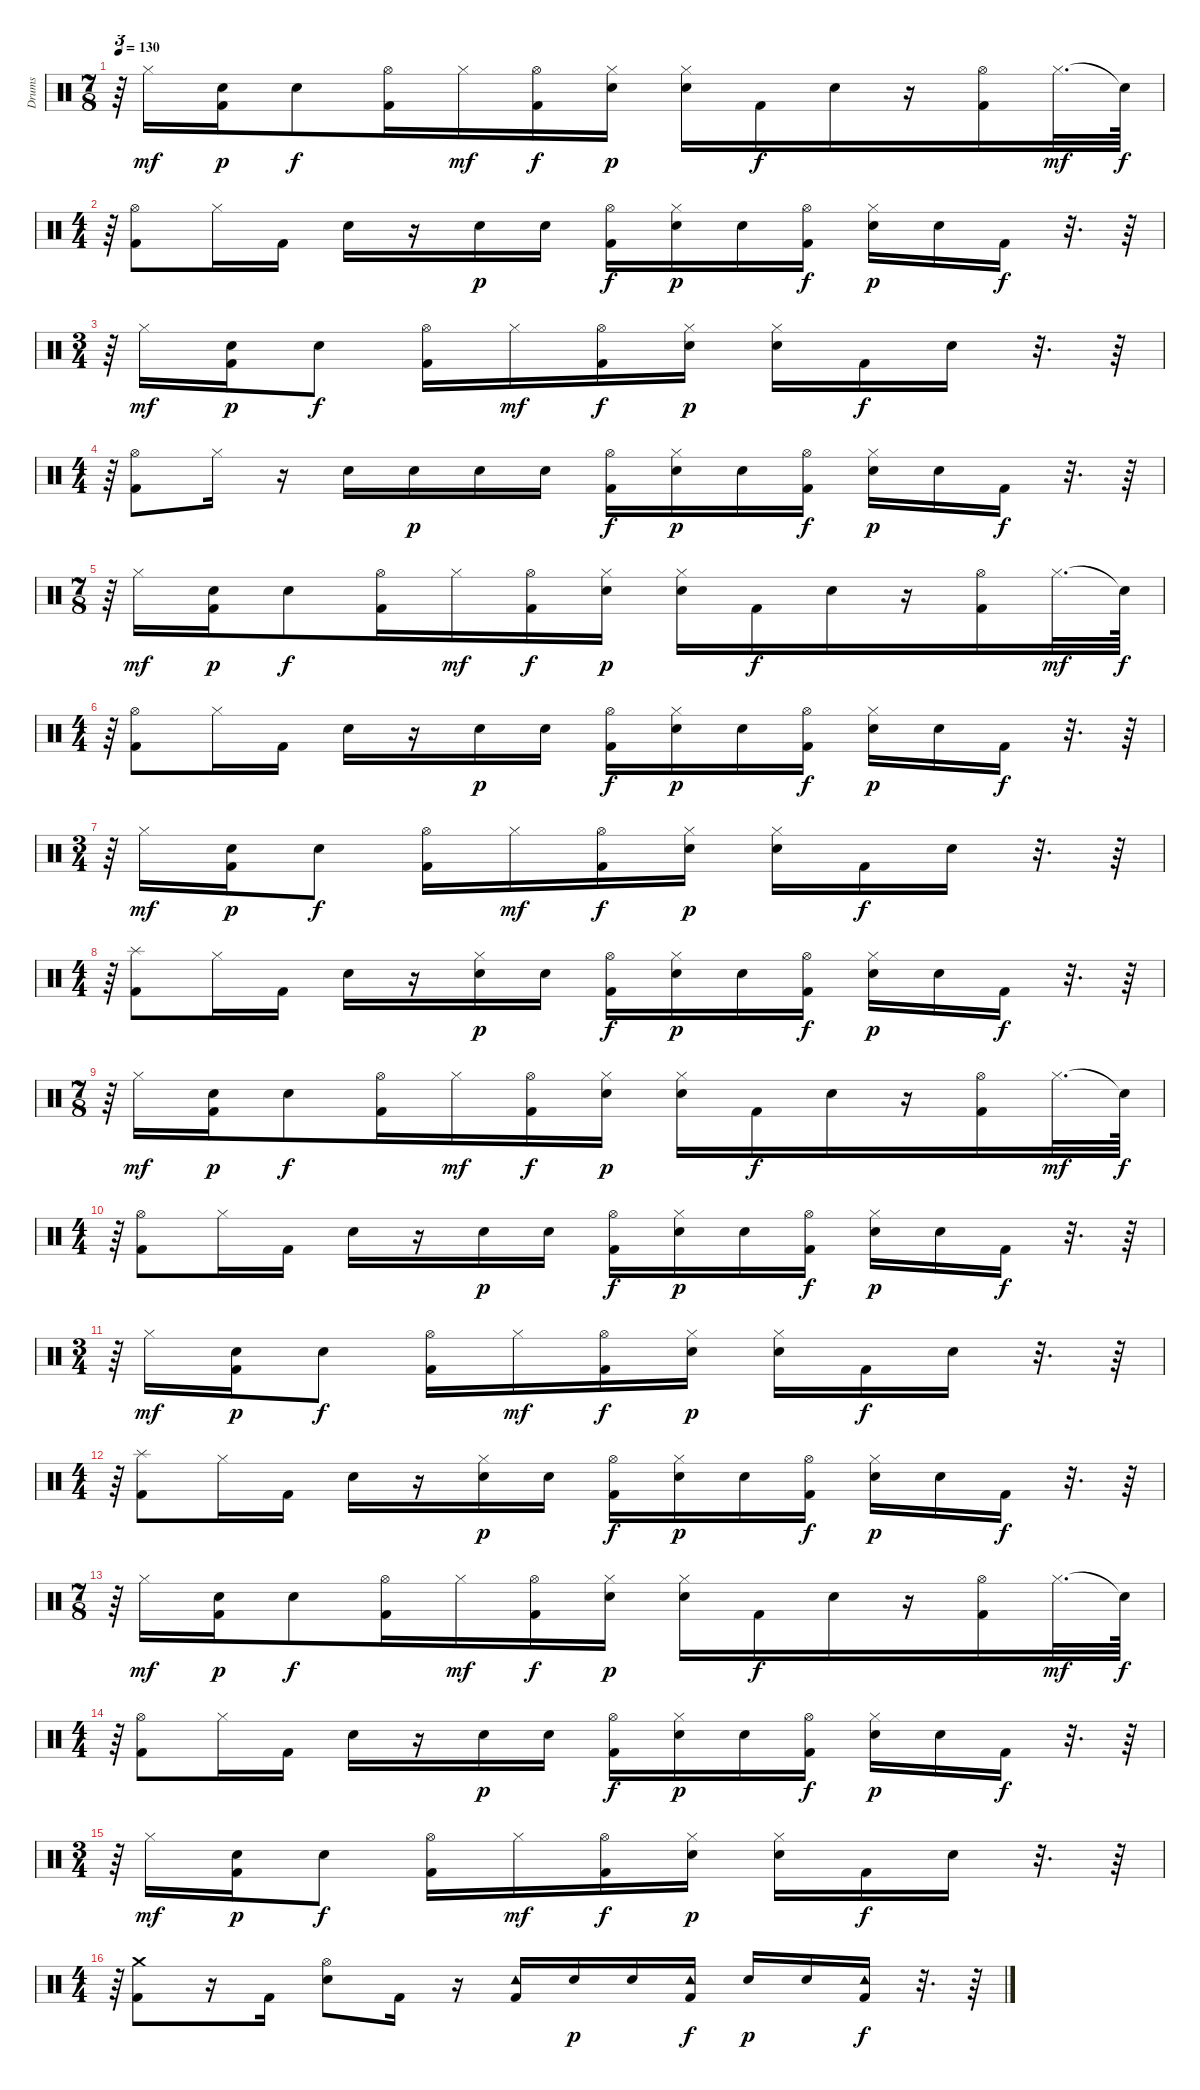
\track ("Drums" "Drums") {instrument percussion}
\staff {score}
\articulation defaults
\ts (7 8)
\tempo 130
\clef neutral
\ks c
r.64{tu (3 2) dy f} "Hi-Hat (closed)".16{dy mf} ("Kick (hit) 2" "Electric Snare (hit)").16{dy p} "Electric Snare (hit)".8{dy f} ("Kick (hit) 2" "Hi-Hat (open)").16 "Hi-Hat (closed)".16{dy mf} ("Kick (hit) 2" "Hi-Hat (open)").16{dy f} ("Hi-Hat (closed)" "Electric Snare (hit)").16{dy p} ("Hi-Hat (closed)" "Electric Snare (hit)").16 "Kick (hit) 2".16{dy f} "Electric Snare (hit)".16 r.16 ("Kick (hit) 2" "Hi-Hat (open)").16 "Hi-Hat (closed)".32{d dy mf} "Snare (hit)"{t}.64{dy f} |
\ts (4 4)
r.64{tu (3 2)} ("Hi-Hat (open)" "Kick (hit) 2").8 "Hi-Hat (closed)".16 "Kick (hit) 2".16 "Electric Snare (hit)".16 r.16 "Electric Snare (hit)".16{dy p} "Electric Snare (hit)".16 ("Kick (hit) 2" "Hi-Hat (open)").16{dy f} ("Hi-Hat (closed)" "Electric Snare (hit)").16{dy p} "Electric Snare (hit)".16 ("Kick (hit) 2" "Hi-Hat (open)").16{dy f} ("Hi-Hat (closed)" "Electric Snare (hit)").16{dy p} "Electric Snare (hit)".16 "Kick (hit) 2".16{dy f} r.32{d} r.64 |
\ts (3 4)
r.64{tu (3 2)} "Hi-Hat (closed)".16{dy mf} ("Kick (hit) 2" "Electric Snare (hit)").16{dy p} "Electric Snare (hit)".8{dy f} ("Kick (hit) 2" "Hi-Hat (open)").16 "Hi-Hat (closed)".16{dy mf} ("Kick (hit) 2" "Hi-Hat (open)").16{dy f} ("Hi-Hat (closed)" "Electric Snare (hit)").16{dy p} ("Hi-Hat (closed)" "Electric Snare (hit)").16 "Kick (hit) 2".16{dy f} "Electric Snare (hit)".16 r.32{d} r.64 |
\ts (4 4)
r.64{tu (3 2)} ("Hi-Hat (open)" "Kick (hit) 2").8 "Hi-Hat (closed)".16 r.16 "Electric Snare (hit)".16 "Electric Snare (hit)".16{dy p} "Electric Snare (hit)".16 "Electric Snare (hit)".16 ("Kick (hit) 2" "Hi-Hat (open)").16{dy f} ("Hi-Hat (closed)" "Electric Snare (hit)").16{dy p} "Electric Snare (hit)".16 ("Kick (hit) 2" "Hi-Hat (open)").16{dy f} ("Hi-Hat (closed)" "Electric Snare (hit)").16{dy p} "Electric Snare (hit)".16 "Kick (hit) 2".16{dy f} r.32{d} r.64 |
\ts (7 8)
r.64{tu (3 2)} "Hi-Hat (closed)".16{dy mf} ("Kick (hit) 2" "Electric Snare (hit)").16{dy p} "Electric Snare (hit)".8{dy f} ("Kick (hit) 2" "Hi-Hat (open)").16 "Hi-Hat (closed)".16{dy mf} ("Kick (hit) 2" "Hi-Hat (open)").16{dy f} ("Hi-Hat (closed)" "Electric Snare (hit)").16{dy p} ("Hi-Hat (closed)" "Electric Snare (hit)").16 "Kick (hit) 2".16{dy f} "Electric Snare (hit)".16 r.16 ("Kick (hit) 2" "Hi-Hat (open)").16 "Hi-Hat (closed)".32{d dy mf} "Snare (hit)"{t}.64{dy f} |
\ts (4 4)
r.64{tu (3 2)} ("Hi-Hat (open)" "Kick (hit) 2").8 "Hi-Hat (closed)".16 "Kick (hit) 2".16 "Electric Snare (hit)".16 r.16 "Electric Snare (hit)".16{dy p} "Electric Snare (hit)".16 ("Kick (hit) 2" "Hi-Hat (open)").16{dy f} ("Hi-Hat (closed)" "Electric Snare (hit)").16{dy p} "Electric Snare (hit)".16 ("Kick (hit) 2" "Hi-Hat (open)").16{dy f} ("Hi-Hat (closed)" "Electric Snare (hit)").16{dy p} "Electric Snare (hit)".16 "Kick (hit) 2".16{dy f} r.32{d} r.64 |
\ts (3 4)
r.64{tu (3 2)} "Hi-Hat (closed)".16{dy mf} ("Kick (hit) 2" "Electric Snare (hit)").16{dy p} "Electric Snare (hit)".8{dy f} ("Kick (hit) 2" "Hi-Hat (open)").16 "Hi-Hat (closed)".16{dy mf} ("Kick (hit) 2" "Hi-Hat (open)").16{dy f} ("Hi-Hat (closed)" "Electric Snare (hit)").16{dy p} ("Hi-Hat (closed)" "Electric Snare (hit)").16 "Kick (hit) 2".16{dy f} "Electric Snare (hit)".16 r.32{d} r.64 |
\ts (4 4)
r.64{tu (3 2)} ("Kick (hit) 2" "Splash (hit)").8 "Hi-Hat (closed)".16 "Kick (hit) 2".16 "Electric Snare (hit)".16 r.16 ("Electric Snare (hit)" "Hi-Hat (closed)").16{dy p} "Electric Snare (hit)".16 ("Kick (hit) 2" "Hi-Hat (open)").16{dy f} ("Hi-Hat (closed)" "Electric Snare (hit)").16{dy p} "Electric Snare (hit)".16 ("Kick (hit) 2" "Hi-Hat (open)").16{dy f} ("Hi-Hat (closed)" "Electric Snare (hit)").16{dy p} "Electric Snare (hit)".16 "Kick (hit) 2".16{dy f} r.32{d} r.64 |
\ts (7 8)
r.64{tu (3 2)} "Hi-Hat (closed)".16{dy mf} ("Kick (hit) 2" "Electric Snare (hit)").16{dy p} "Electric Snare (hit)".8{dy f} ("Kick (hit) 2" "Hi-Hat (open)").16 "Hi-Hat (closed)".16{dy mf} ("Kick (hit) 2" "Hi-Hat (open)").16{dy f} ("Hi-Hat (closed)" "Electric Snare (hit)").16{dy p} ("Hi-Hat (closed)" "Electric Snare (hit)").16 "Kick (hit) 2".16{dy f} "Electric Snare (hit)".16 r.16 ("Kick (hit) 2" "Hi-Hat (open)").16 "Hi-Hat (closed)".32{d dy mf} "Snare (hit)"{t}.64{dy f} |
\ts (4 4)
r.64{tu (3 2)} ("Kick (hit) 2" "Hi-Hat (open)").8 "Hi-Hat (closed)".16 "Kick (hit) 2".16 "Electric Snare (hit)".16 r.16 "Electric Snare (hit)".16{dy p} "Electric Snare (hit)".16 ("Kick (hit) 2" "Hi-Hat (open)").16{dy f} ("Hi-Hat (closed)" "Electric Snare (hit)").16{dy p} "Electric Snare (hit)".16 ("Kick (hit) 2" "Hi-Hat (open)").16{dy f} ("Hi-Hat (closed)" "Electric Snare (hit)").16{dy p} "Electric Snare (hit)".16 "Kick (hit) 2".16{dy f} r.32{d} r.64 |
\ts (3 4)
r.64{tu (3 2)} "Hi-Hat (closed)".16{dy mf} ("Kick (hit) 2" "Electric Snare (hit)").16{dy p} "Electric Snare (hit)".8{dy f} ("Kick (hit) 2" "Hi-Hat (open)").16 "Hi-Hat (closed)".16{dy mf} ("Kick (hit) 2" "Hi-Hat (open)").16{dy f} ("Hi-Hat (closed)" "Electric Snare (hit)").16{dy p} ("Hi-Hat (closed)" "Electric Snare (hit)").16 "Kick (hit) 2".16{dy f} "Electric Snare (hit)".16 r.32{d} r.64 |
\ts (4 4)
r.64{tu (3 2)} ("Splash (hit)" "Kick (hit) 2").8 "Hi-Hat (closed)".16 "Kick (hit) 2".16 "Electric Snare (hit)".16 r.16 ("Electric Snare (hit)" "Hi-Hat (closed)").16{dy p} "Electric Snare (hit)".16 ("Kick (hit) 2" "Hi-Hat (open)").16{dy f} ("Hi-Hat (closed)" "Electric Snare (hit)").16{dy p} "Electric Snare (hit)".16 ("Kick (hit) 2" "Hi-Hat (open)").16{dy f} ("Hi-Hat (closed)" "Electric Snare (hit)").16{dy p} "Electric Snare (hit)".16 "Kick (hit) 2".16{dy f} r.32{d} r.64 |
\ts (7 8)
r.64{tu (3 2)} "Hi-Hat (closed)".16{dy mf} ("Kick (hit) 2" "Electric Snare (hit)").16{dy p} "Electric Snare (hit)".8{dy f} ("Kick (hit) 2" "Hi-Hat (open)").16 "Hi-Hat (closed)".16{dy mf} ("Kick (hit) 2" "Hi-Hat (open)").16{dy f} ("Hi-Hat (closed)" "Electric Snare (hit)").16{dy p} ("Hi-Hat (closed)" "Electric Snare (hit)").16 "Kick (hit) 2".16{dy f} "Electric Snare (hit)".16 r.16 ("Kick (hit) 2" "Hi-Hat (open)").16 "Hi-Hat (closed)".32{d dy mf} "Snare (hit)"{t}.64{dy f} |
\ts (4 4)
r.64{tu (3 2)} ("Kick (hit) 2" "Hi-Hat (open)").8 "Hi-Hat (closed)".16 "Kick (hit) 2".16 "Electric Snare (hit)".16 r.16 "Electric Snare (hit)".16{dy p} "Electric Snare (hit)".16 ("Kick (hit) 2" "Hi-Hat (open)").16{dy f} ("Hi-Hat (closed)" "Electric Snare (hit)").16{dy p} "Electric Snare (hit)".16 ("Kick (hit) 2" "Hi-Hat (open)").16{dy f} ("Hi-Hat (closed)" "Electric Snare (hit)").16{dy p} "Electric Snare (hit)".16 "Kick (hit) 2".16{dy f} r.32{d} r.64 |
\ts (3 4)
r.64{tu (3 2)} "Hi-Hat (closed)".16{dy mf} ("Kick (hit) 2" "Electric Snare (hit)").16{dy p} "Electric Snare (hit)".8{dy f} ("Kick (hit) 2" "Hi-Hat (open)").16 "Hi-Hat (closed)".16{dy mf} ("Kick (hit) 2" "Hi-Hat (open)").16{dy f} ("Hi-Hat (closed)" "Electric Snare (hit)").16{dy p} ("Hi-Hat (closed)" "Electric Snare (hit)").16 "Kick (hit) 2".16{dy f} "Electric Snare (hit)".16 r.32{d} r.64 |
\ts (4 4)
r.64{tu (3 2)} ("Kick (hit) 2" "Crash medium (hit)").8 r.16 "Kick (hit) 2".16 ("Electric Snare (hit)" "Hi-Hat (open)").8 "Kick (hit) 2".16 r.16 ("Kick (hit) 2" "Tambourine (hit)").16 "Electric Snare (hit)".16{dy p} "Electric Snare (hit)".16 ("Kick (hit) 2" "Tambourine (hit)").16{dy f} "Electric Snare (hit)".16{dy p} "Electric Snare (hit)".16 ("Kick (hit) 2" "Tambourine (hit)").16{dy f} r.32{d} r.64
